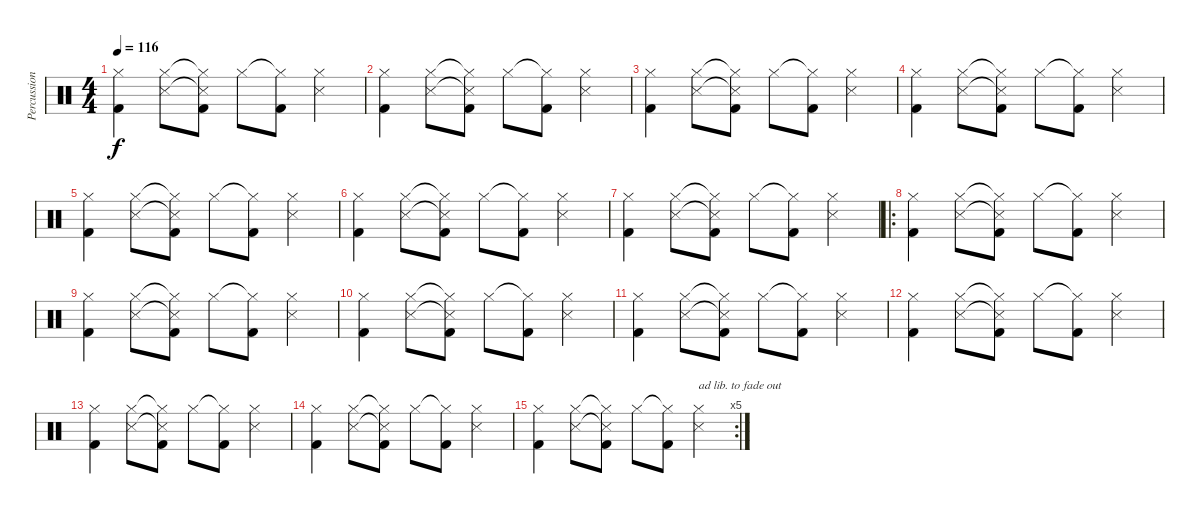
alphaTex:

\track ("Percussions" "Percussion") {instrument percussion}
\staff {score}
\articulation defaults
\ts (4 4)
\tempo 116
\clef neutral
\ks c
("Hi-Hat (closed)" "Kick (hit) 2").4{dy f} ("Hi-Hat (closed)" "Snare (side stick) 3").8 ("Hi-Hat (closed)"{t} "Snare (side stick) 3"{t} "Kick (hit) 2").8 "Hi-Hat (closed)".8 ("Hi-Hat (closed)"{t} "Kick (hit) 2").8 ("Hi-Hat (closed)" "Snare (side stick) 3").4 |
("Hi-Hat (closed)" "Kick (hit) 2").4 ("Hi-Hat (closed)" "Snare (side stick) 3").8 ("Hi-Hat (closed)"{t} "Snare (side stick) 3"{t} "Kick (hit) 2").8 "Hi-Hat (closed)".8 ("Hi-Hat (closed)"{t} "Kick (hit) 2").8 ("Hi-Hat (closed)" "Snare (side stick) 3").4 |
("Hi-Hat (closed)" "Kick (hit) 2").4 ("Hi-Hat (closed)" "Snare (side stick) 3").8 ("Hi-Hat (closed)"{t} "Snare (side stick) 3"{t} "Kick (hit) 2").8 "Hi-Hat (closed)".8 ("Hi-Hat (closed)"{t} "Kick (hit) 2").8 ("Hi-Hat (closed)" "Snare (side stick) 3").4 |
("Hi-Hat (closed)" "Kick (hit) 2").4 ("Hi-Hat (closed)" "Snare (side stick) 3").8 ("Hi-Hat (closed)"{t} "Snare (side stick) 3"{t} "Kick (hit) 2").8 "Hi-Hat (closed)".8 ("Hi-Hat (closed)"{t} "Kick (hit) 2").8 ("Hi-Hat (closed)" "Snare (side stick) 3").4 |
("Hi-Hat (closed)" "Kick (hit) 2").4 ("Hi-Hat (closed)" "Snare (side stick) 3").8 ("Hi-Hat (closed)"{t} "Snare (side stick) 3"{t} "Kick (hit) 2").8 "Hi-Hat (closed)".8 ("Hi-Hat (closed)"{t} "Kick (hit) 2").8 ("Hi-Hat (closed)" "Snare (side stick) 3").4 |
("Hi-Hat (closed)" "Kick (hit) 2").4 ("Hi-Hat (closed)" "Snare (side stick) 3").8 ("Hi-Hat (closed)"{t} "Snare (side stick) 3"{t} "Kick (hit) 2").8 "Hi-Hat (closed)".8 ("Hi-Hat (closed)"{t} "Kick (hit) 2").8 ("Hi-Hat (closed)" "Snare (side stick) 3").4 |
("Hi-Hat (closed)" "Kick (hit) 2").4 ("Hi-Hat (closed)" "Snare (side stick) 3").8 ("Hi-Hat (closed)"{t} "Snare (side stick) 3"{t} "Kick (hit) 2").8 "Hi-Hat (closed)".8 ("Hi-Hat (closed)"{t} "Kick (hit) 2").8 ("Hi-Hat (closed)" "Snare (side stick) 3").4 |
\ro
("Hi-Hat (closed)" "Kick (hit) 2").4 ("Hi-Hat (closed)" "Snare (side stick) 3").8 ("Hi-Hat (closed)"{t} "Snare (side stick) 3"{t} "Kick (hit) 2").8 "Hi-Hat (closed)".8 ("Hi-Hat (closed)"{t} "Kick (hit) 2").8 ("Hi-Hat (closed)" "Snare (side stick) 3").4 |
("Hi-Hat (closed)" "Kick (hit) 2").4 ("Hi-Hat (closed)" "Snare (side stick) 3").8 ("Hi-Hat (closed)"{t} "Snare (side stick) 3"{t} "Kick (hit) 2").8 "Hi-Hat (closed)".8 ("Hi-Hat (closed)"{t} "Kick (hit) 2").8 ("Hi-Hat (closed)" "Snare (side stick) 3").4 |
("Hi-Hat (closed)" "Kick (hit) 2").4 ("Hi-Hat (closed)" "Snare (side stick) 3").8 ("Hi-Hat (closed)"{t} "Snare (side stick) 3"{t} "Kick (hit) 2").8 "Hi-Hat (closed)".8 ("Hi-Hat (closed)"{t} "Kick (hit) 2").8 ("Hi-Hat (closed)" "Snare (side stick) 3").4 |
("Hi-Hat (closed)" "Kick (hit) 2").4 ("Hi-Hat (closed)" "Snare (side stick) 3").8 ("Hi-Hat (closed)"{t} "Snare (side stick) 3"{t} "Kick (hit) 2").8 "Hi-Hat (closed)".8 ("Hi-Hat (closed)"{t} "Kick (hit) 2").8 ("Hi-Hat (closed)" "Snare (side stick) 3").4 |
("Hi-Hat (closed)" "Kick (hit) 2").4 ("Hi-Hat (closed)" "Snare (side stick) 3").8 ("Hi-Hat (closed)"{t} "Snare (side stick) 3"{t} "Kick (hit) 2").8 "Hi-Hat (closed)".8 ("Hi-Hat (closed)"{t} "Kick (hit) 2").8 ("Hi-Hat (closed)" "Snare (side stick) 3").4 |
("Hi-Hat (closed)" "Kick (hit) 2").4 ("Hi-Hat (closed)" "Snare (side stick) 3").8 ("Hi-Hat (closed)"{t} "Snare (side stick) 3"{t} "Kick (hit) 2").8 "Hi-Hat (closed)".8 ("Hi-Hat (closed)"{t} "Kick (hit) 2").8 ("Hi-Hat (closed)" "Snare (side stick) 3").4 |
("Hi-Hat (closed)" "Kick (hit) 2").4 ("Hi-Hat (closed)" "Snare (side stick) 3").8 ("Hi-Hat (closed)"{t} "Snare (side stick) 3"{t} "Kick (hit) 2").8 "Hi-Hat (closed)".8 ("Hi-Hat (closed)"{t} "Kick (hit) 2").8 ("Hi-Hat (closed)" "Snare (side stick) 3").4 |
\rc 5
("Hi-Hat (closed)" "Kick (hit) 2").4 ("Hi-Hat (closed)" "Snare (side stick) 3").8 ("Hi-Hat (closed)"{t} "Snare (side stick) 3"{t} "Kick (hit) 2").8 "Hi-Hat (closed)".8 ("Hi-Hat (closed)"{t} "Kick (hit) 2").8 ("Hi-Hat (closed)" "Snare (side stick) 3").4{txt "ad lib. to fade out"}
